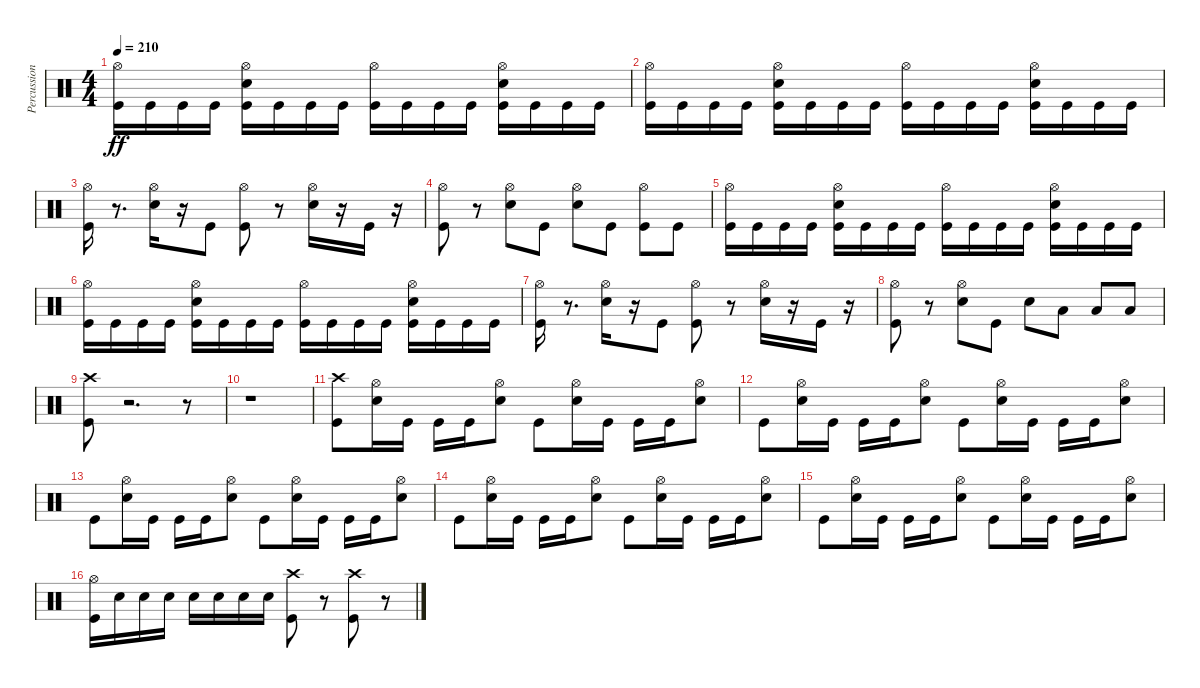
\track ("Percussion" "Percussion") {instrument percussion}
\staff {score}
\articulation defaults
\ts (4 4)
\tempo 210
\clef neutral
\ks c
("Hi-Hat (open)" "Kick (hit)").16{dy ff} "Kick (hit)".16 "Kick (hit)".16 "Kick (hit)".16 ("Snare (hit) 2" "Hi-Hat (open)" "Kick (hit)").16 "Kick (hit)".16 "Kick (hit)".16 "Kick (hit)".16 ("Hi-Hat (open)" "Kick (hit)").16 "Kick (hit)".16 "Kick (hit)".16 "Kick (hit)".16 ("Snare (hit) 2" "Hi-Hat (open)" "Kick (hit)").16 "Kick (hit)".16 "Kick (hit)".16 "Kick (hit)".16 |
("Hi-Hat (open)" "Kick (hit)").16 "Kick (hit)".16 "Kick (hit)".16 "Kick (hit)".16 ("Snare (hit) 2" "Hi-Hat (open)" "Kick (hit)").16 "Kick (hit)".16 "Kick (hit)".16 "Kick (hit)".16 ("Hi-Hat (open)" "Kick (hit)").16 "Kick (hit)".16 "Kick (hit)".16 "Kick (hit)".16 ("Snare (hit) 2" "Hi-Hat (open)" "Kick (hit)").16 "Kick (hit)".16 "Kick (hit)".16 "Kick (hit)".16 |
("Hi-Hat (open)" "Kick (hit)").16 r.8{d} ("Hi-Hat (open)" "Snare (hit) 2").16 r.16 "Kick (hit)".8 ("Kick (hit)" "Hi-Hat (open)").8 r.8 ("Hi-Hat (open)" "Snare (hit) 2").16 r.16 "Kick (hit)".16 r.16 |
("Hi-Hat (open)" "Kick (hit)").8 r.8 ("Hi-Hat (open)" "Snare (hit) 2").8 "Kick (hit)".8 ("Hi-Hat (open)" "Snare (hit) 2").8 "Kick (hit)".8 ("Hi-Hat (open)" "Kick (hit)").8 "Kick (hit)".8 |
("Hi-Hat (open)" "Kick (hit)").16 "Kick (hit)".16 "Kick (hit)".16 "Kick (hit)".16 ("Snare (hit) 2" "Hi-Hat (open)" "Kick (hit)").16 "Kick (hit)".16 "Kick (hit)".16 "Kick (hit)".16 ("Hi-Hat (open)" "Kick (hit)").16 "Kick (hit)".16 "Kick (hit)".16 "Kick (hit)".16 ("Snare (hit) 2" "Hi-Hat (open)" "Kick (hit)").16 "Kick (hit)".16 "Kick (hit)".16 "Kick (hit)".16 |
("Hi-Hat (open)" "Kick (hit)").16 "Kick (hit)".16 "Kick (hit)".16 "Kick (hit)".16 ("Snare (hit) 2" "Hi-Hat (open)" "Kick (hit)").16 "Kick (hit)".16 "Kick (hit)".16 "Kick (hit)".16 ("Hi-Hat (open)" "Kick (hit)").16 "Kick (hit)".16 "Kick (hit)".16 "Kick (hit)".16 ("Snare (hit) 2" "Hi-Hat (open)" "Kick (hit)").16 "Kick (hit)".16 "Kick (hit)".16 "Kick (hit)".16 |
("Hi-Hat (open)" "Kick (hit)").16 r.8{d} ("Hi-Hat (open)" "Snare (hit) 2").16 r.16 "Kick (hit)".8 ("Kick (hit)" "Hi-Hat (open)").8 r.8 ("Hi-Hat (open)" "Snare (hit) 2").16 r.16 "Kick (hit)".16 r.16 |
("Hi-Hat (open)" "Kick (hit)").8 r.8 ("Hi-Hat (open)" "Snare (hit) 2").8 "Kick (hit)".8 "Snare (hit) 2".8 "Low Floor Tom (hit)".8 "Low Floor Tom (hit)".8 "Low Floor Tom (hit)".8 |
("Kick (hit)" "Crash high (hit)").8 r.2{d} r.8 |
r.1 |
("Crash high (hit)" "Kick (hit)").8 ("Hi-Hat (open)" "Snare (hit) 2").16 "Kick (hit)".16 "Kick (hit)".16 "Kick (hit)".16 ("Hi-Hat (open)" "Snare (hit) 2").8 "Kick (hit)".8 ("Hi-Hat (open)" "Snare (hit) 2").16 "Kick (hit)".16 "Kick (hit)".16 "Kick (hit)".16 ("Hi-Hat (open)" "Snare (hit) 2").8 |
"Kick (hit)".8 ("Hi-Hat (open)" "Snare (hit) 2").16 "Kick (hit)".16 "Kick (hit)".16 "Kick (hit)".16 ("Hi-Hat (open)" "Snare (hit) 2").8 "Kick (hit)".8 ("Hi-Hat (open)" "Snare (hit) 2").16 "Kick (hit)".16 "Kick (hit)".16 "Kick (hit)".16 ("Hi-Hat (open)" "Snare (hit) 2").8 |
"Kick (hit)".8 ("Hi-Hat (open)" "Snare (hit) 2").16 "Kick (hit)".16 "Kick (hit)".16 "Kick (hit)".16 ("Hi-Hat (open)" "Snare (hit) 2").8 "Kick (hit)".8 ("Hi-Hat (open)" "Snare (hit) 2").16 "Kick (hit)".16 "Kick (hit)".16 "Kick (hit)".16 ("Hi-Hat (open)" "Snare (hit) 2").8 |
"Kick (hit)".8 ("Hi-Hat (open)" "Snare (hit) 2").16 "Kick (hit)".16 "Kick (hit)".16 "Kick (hit)".16 ("Hi-Hat (open)" "Snare (hit) 2").8 "Kick (hit)".8 ("Hi-Hat (open)" "Snare (hit) 2").16 "Kick (hit)".16 "Kick (hit)".16 "Kick (hit)".16 ("Hi-Hat (open)" "Snare (hit) 2").8 |
"Kick (hit)".8 ("Hi-Hat (open)" "Snare (hit) 2").16 "Kick (hit)".16 "Kick (hit)".16 "Kick (hit)".16 ("Hi-Hat (open)" "Snare (hit) 2").8 "Kick (hit)".8 ("Hi-Hat (open)" "Snare (hit) 2").16 "Kick (hit)".16 "Kick (hit)".16 "Kick (hit)".16 ("Hi-Hat (open)" "Snare (hit) 2").8 |
("Hi-Hat (open)" "Kick (hit)").16 "Snare (hit) 2".16 "Snare (hit) 2".16 "Snare (hit) 2".16 "Snare (hit) 2".16 "Snare (hit) 2".16 "Snare (hit) 2".16 "Snare (hit) 2".16 ("Kick (hit)" "Crash high (hit)").8 r.8 ("Kick (hit)" "Crash high (hit)").8 r.8
